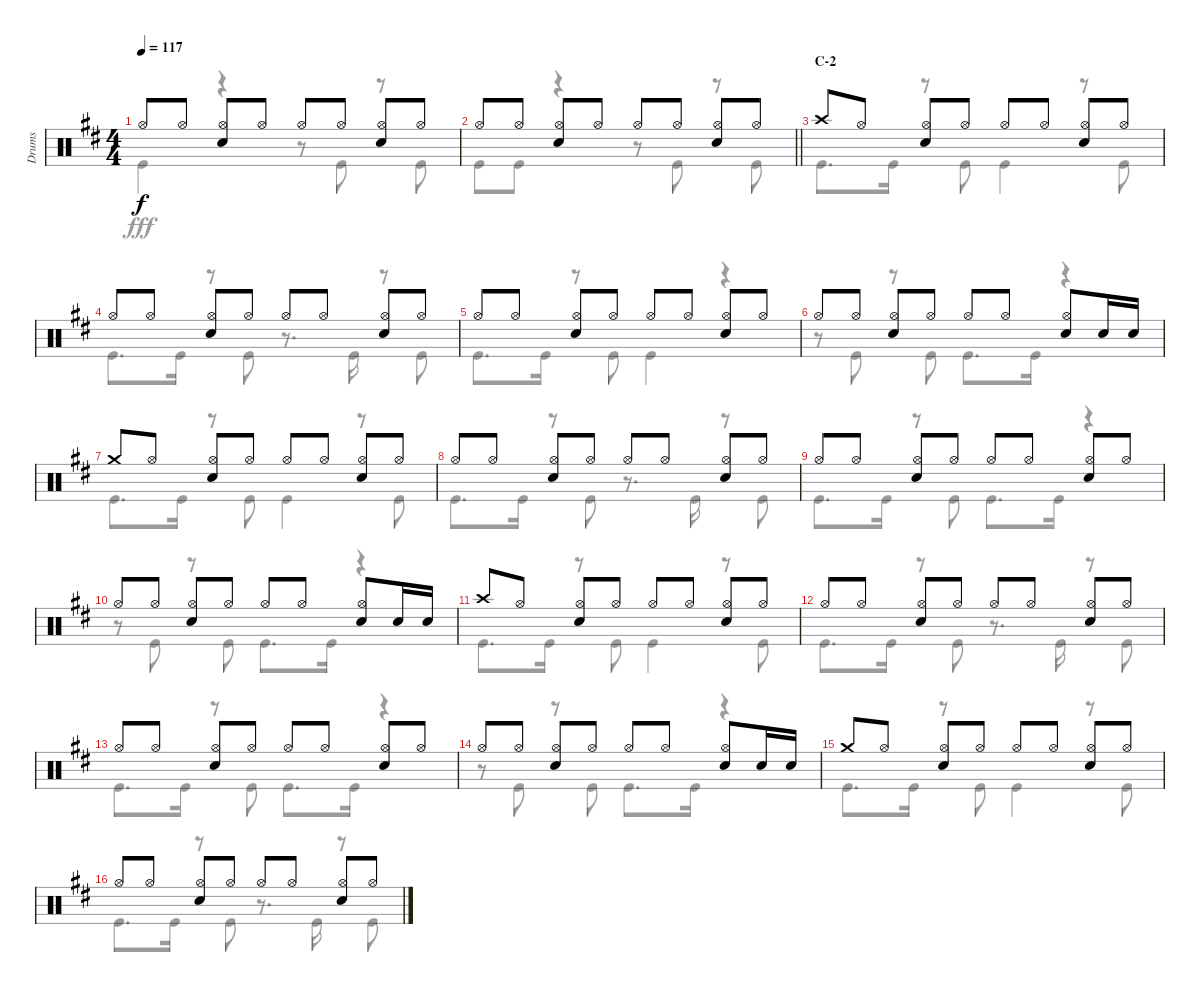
\track ("Drums" "Drums") {instrument percussion}
\staff {score}
\articulation defaults
\voice
\ts (4 4)
\tempo 117
\clef neutral
\ks d "Hi-Hat (open)".8{dy f} "Hi-Hat (open)".8
("Hi-Hat (open)" "Snare (hit) 2").8 "Hi-Hat (open)".8 "Hi-Hat (open)".8 "Hi-Hat (open)".8 ("Hi-Hat (open)" "Snare (hit) 2").8 "Hi-Hat (open)".8 |
\barLineRight lightlight "Hi-Hat (open)".8 "Hi-Hat (open)".8
("Hi-Hat (open)" "Snare (hit) 2").8 "Hi-Hat (open)".8 "Hi-Hat (open)".8 "Hi-Hat (open)".8 ("Hi-Hat (open)" "Snare (hit) 2").8 "Hi-Hat (open)".8 |
\section ("" "C-2")
"Crash high (hit)".8 "Hi-Hat (open)".8 ("Hi-Hat (open)" "Snare (hit) 2").8 "Hi-Hat (open)".8 "Hi-Hat (open)".8 "Hi-Hat (open)".8 ("Hi-Hat (open)" "Snare (hit) 2").8 "Hi-Hat (open)".8 |
"Hi-Hat (open)".8 "Hi-Hat (open)".8 ("Hi-Hat (open)" "Snare (hit) 2").8 "Hi-Hat (open)".8 "Hi-Hat (open)".8 "Hi-Hat (open)".8 ("Hi-Hat (open)" "Snare (hit) 2").8 "Hi-Hat (open)".8 |
"Hi-Hat (open)".8 "Hi-Hat (open)".8 ("Hi-Hat (open)" "Snare (hit) 2").8 "Hi-Hat (open)".8 "Hi-Hat (open)".8 "Hi-Hat (open)".8 ("Hi-Hat (open)" "Snare (hit) 2").8 "Hi-Hat (open)".8 |
"Hi-Hat (open)".8 "Hi-Hat (open)".8 ("Hi-Hat (open)" "Snare (hit) 2").8 "Hi-Hat (open)".8 "Hi-Hat (open)".8 "Hi-Hat (open)".8 ("Hi-Hat (open)" "Snare (hit) 2").8 "Snare (hit) 2".16 "Snare (hit) 2".16 |
"Crash medium (hit)".8 "Hi-Hat (open)".8 ("Hi-Hat (open)" "Snare (hit) 2").8 "Hi-Hat (open)".8 "Hi-Hat (open)".8 "Hi-Hat (open)".8 ("Hi-Hat (open)" "Snare (hit) 2").8 "Hi-Hat (open)".8 |
"Hi-Hat (open)".8 "Hi-Hat (open)".8 ("Hi-Hat (open)" "Snare (hit) 2").8 "Hi-Hat (open)".8 "Hi-Hat (open)".8 "Hi-Hat (open)".8 ("Hi-Hat (open)" "Snare (hit) 2").8 "Hi-Hat (open)".8 |
"Hi-Hat (open)".8 "Hi-Hat (open)".8 ("Hi-Hat (open)" "Snare (hit) 2").8 "Hi-Hat (open)".8 "Hi-Hat (open)".8 "Hi-Hat (open)".8 ("Hi-Hat (open)" "Snare (hit) 2").8 "Hi-Hat (open)".8 |
"Hi-Hat (open)".8 "Hi-Hat (open)".8 ("Hi-Hat (open)" "Snare (hit) 2").8 "Hi-Hat (open)".8 "Hi-Hat (open)".8 "Hi-Hat (open)".8 ("Hi-Hat (open)" "Snare (hit) 2").8 "Snare (hit) 2".16 "Snare (hit) 2".16 |
"Crash high (hit)".8 "Hi-Hat (open)".8 ("Hi-Hat (open)" "Snare (hit) 2").8 "Hi-Hat (open)".8 "Hi-Hat (open)".8 "Hi-Hat (open)".8 ("Hi-Hat (open)" "Snare (hit) 2").8 "Hi-Hat (open)".8 |
"Hi-Hat (open)".8 "Hi-Hat (open)".8 ("Hi-Hat (open)" "Snare (hit) 2").8 "Hi-Hat (open)".8 "Hi-Hat (open)".8 "Hi-Hat (open)".8 ("Hi-Hat (open)" "Snare (hit) 2").8 "Hi-Hat (open)".8 |
"Hi-Hat (open)".8 "Hi-Hat (open)".8 ("Hi-Hat (open)" "Snare (hit) 2").8 "Hi-Hat (open)".8 "Hi-Hat (open)".8 "Hi-Hat (open)".8 ("Hi-Hat (open)" "Snare (hit) 2").8 "Hi-Hat (open)".8 |
"Hi-Hat (open)".8 "Hi-Hat (open)".8 ("Hi-Hat (open)" "Snare (hit) 2").8 "Hi-Hat (open)".8 "Hi-Hat (open)".8 "Hi-Hat (open)".8 ("Hi-Hat (open)" "Snare (hit) 2").8 "Snare (hit) 2".16 "Snare (hit) 2".16 |
"Crash medium (hit)".8 "Hi-Hat (open)".8 ("Hi-Hat (open)" "Snare (hit) 2").8 "Hi-Hat (open)".8 "Hi-Hat (open)".8 "Hi-Hat (open)".8 ("Hi-Hat (open)" "Snare (hit) 2").8 "Hi-Hat (open)".8 |
"Hi-Hat (open)".8 "Hi-Hat (open)".8 ("Hi-Hat (open)" "Snare (hit) 2").8 "Hi-Hat (open)".8 "Hi-Hat (open)".8 "Hi-Hat (open)".8 ("Hi-Hat (open)" "Snare (hit) 2").8 "Hi-Hat (open)".8
\voice
\clef neutral
\ottava regular
\simile none
\ks d "Kick (hit)".4{dy fff}
r.4 r.8 "Kick (hit)".8 r.8 "Kick (hit)".8 |
\barLineRight lightlight "Kick (hit)".8 "Kick (hit)".8
r.4 r.8 "Kick (hit)".8 r.8 "Kick (hit)".8 |
"Kick (hit)".8{d} "Kick (hit)".16 r.8 "Kick (hit)".8 "Kick (hit)".4 r.8 "Kick (hit)".8 |
"Kick (hit)".8{d} "Kick (hit)".16 r.8 "Kick (hit)".8 r.8{d} "Kick (hit)".16 r.8 "Kick (hit)".8 |
"Kick (hit)".8{d} "Kick (hit)".16 r.8 "Kick (hit)".8 "Kick (hit)".4 r.4 |
r.8 "Kick (hit)".8 r.8 "Kick (hit)".8 "Kick (hit)".8{d} "Kick (hit)".16 r.4 |
"Kick (hit)".8{d} "Kick (hit)".16 r.8 "Kick (hit)".8 "Kick (hit)".4 r.8 "Kick (hit)".8 |
"Kick (hit)".8{d} "Kick (hit)".16 r.8 "Kick (hit)".8 r.8{d} "Kick (hit)".16 r.8 "Kick (hit)".8 |
"Kick (hit)".8{d} "Kick (hit)".16 r.8 "Kick (hit)".8 "Kick (hit)".8{d} "Kick (hit)".16 r.4 |
r.8 "Kick (hit)".8 r.8 "Kick (hit)".8 "Kick (hit)".8{d} "Kick (hit)".16 r.4 |
"Kick (hit)".8{d} "Kick (hit)".16 r.8 "Kick (hit)".8 "Kick (hit)".4 r.8 "Kick (hit)".8 |
"Kick (hit)".8{d} "Kick (hit)".16 r.8 "Kick (hit)".8 r.8{d} "Kick (hit)".16 r.8 "Kick (hit)".8 |
"Kick (hit)".8{d} "Kick (hit)".16 r.8 "Kick (hit)".8 "Kick (hit)".8{d} "Kick (hit)".16 r.4 |
r.8 "Kick (hit)".8 r.8 "Kick (hit)".8 "Kick (hit)".8{d} "Kick (hit)".16 r.4 |
"Kick (hit)".8{d} "Kick (hit)".16 r.8 "Kick (hit)".8 "Kick (hit)".4 r.8 "Kick (hit)".8 |
"Kick (hit)".8{d} "Kick (hit)".16 r.8 "Kick (hit)".8 r.8{d} "Kick (hit)".16 r.8 "Kick (hit)".8
